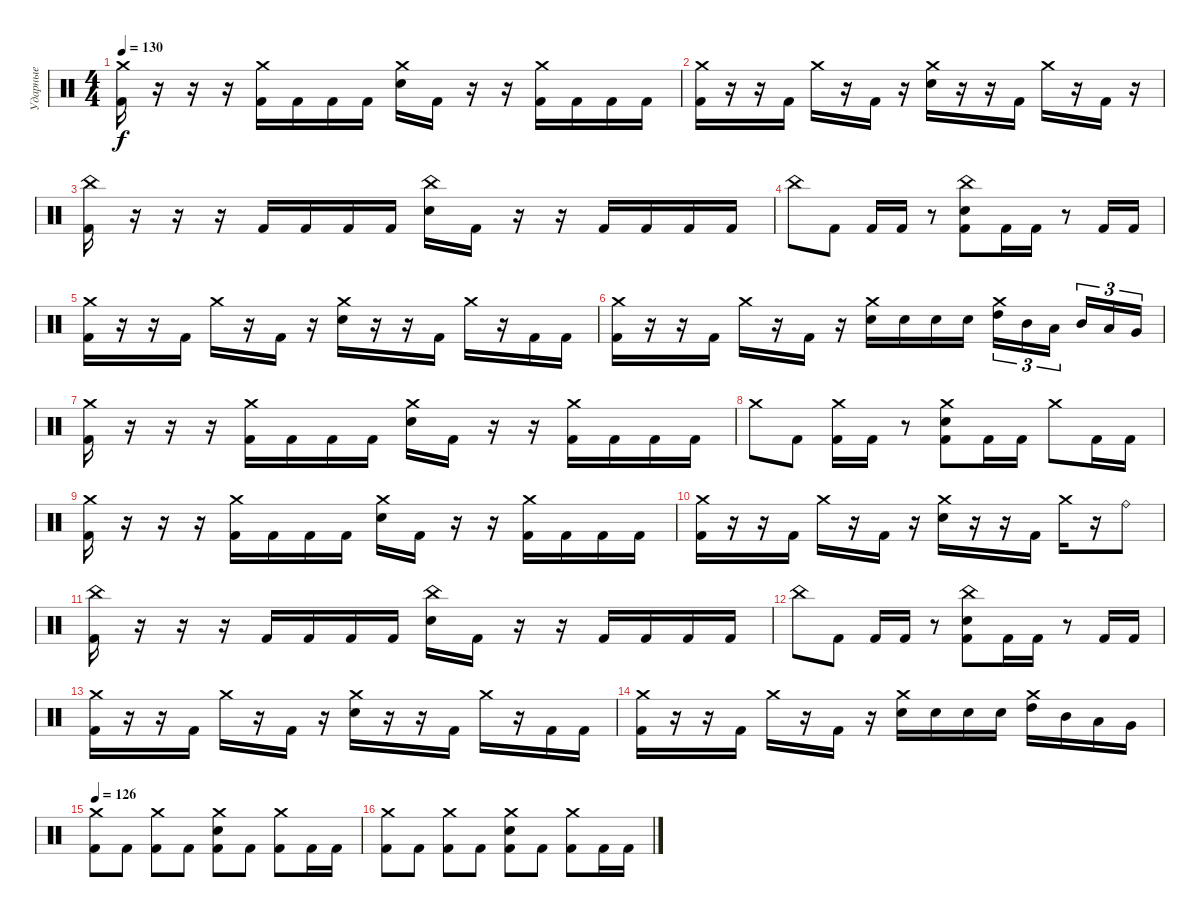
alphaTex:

\track ("Ударные" "Ударные") {instrument percussion}
\staff {score}
\articulation defaults
\ts (4 4)
\tempo 130
\clef neutral
\ks c
("Crash medium (hit)" "Kick (hit) 2").16{dy f} r.16 r.16 r.16 ("Crash medium (hit)" "Kick (hit) 2").16 "Kick (hit) 2".16 "Kick (hit) 2".16 "Kick (hit) 2".16 ("Crash medium (hit)" "Electric Snare (hit)").16 "Kick (hit) 2".16 r.16 r.16 ("Crash medium (hit)" "Kick (hit) 2").16 "Kick (hit) 2".16 "Kick (hit) 2".16 "Kick (hit) 2".16 |
("Crash medium (hit)" "Kick (hit) 2").16 r.16 r.16 "Kick (hit) 2".16 "Crash medium (hit)".16 r.16 "Kick (hit) 2".16 r.16 ("Crash medium (hit)" "Electric Snare (hit)").16 r.16 r.16 "Kick (hit) 2".16 "Crash medium (hit)".16 r.16 "Kick (hit) 2".16 r.16 |
("China (hit)" "Kick (hit) 2").16 r.16 r.16 r.16 "Kick (hit) 2".16 "Kick (hit) 2".16 "Kick (hit) 2".16 "Kick (hit) 2".16 ("China (hit)" "Electric Snare (hit)").16 "Kick (hit) 2".16 r.16 r.16 "Kick (hit) 2".16 "Kick (hit) 2".16 "Kick (hit) 2".16 "Kick (hit) 2".16 |
"China (hit)".8 "Kick (hit) 2".8 "Kick (hit) 2".16 "Kick (hit) 2".16 r.8 ("China (hit)" "Electric Snare (hit)" "Kick (hit) 2").8 "Kick (hit) 2".16 "Kick (hit) 2".16 r.8 "Kick (hit) 2".16 "Kick (hit) 2".16 |
("Crash medium (hit)" "Kick (hit) 2").16 r.16 r.16 "Kick (hit) 2".16 "Crash medium (hit)".16 r.16 "Kick (hit) 2".16 r.16 ("Crash medium (hit)" "Electric Snare (hit)").16 r.16 r.16 "Kick (hit) 2".16 "Crash medium (hit)".16 r.16 "Kick (hit) 2".16 "Kick (hit) 2".16 |
("Crash medium (hit)" "Kick (hit) 2").16 r.16 r.16 "Kick (hit) 2".16 "Crash medium (hit)".16 r.16 "Kick (hit) 2".16 r.16 ("Crash medium (hit)" "Electric Snare (hit)").16 "Electric Snare (hit)".16 "Electric Snare (hit)".16 "Electric Snare (hit)".16 ("Crash medium (hit)" "High Tom (hit)").16{tu (3 2)} "Mid Tom (hit)".16{tu (3 2)} "Low Tom (hit)".16{tu (3 2) beam splitsecondary} "Mid Tom (hit)".16{tu (3 2)} "Low Tom (hit)".16{tu (3 2)} "Very Low Tom (hit)".16{tu (3 2)} |
("Crash medium (hit)" "Kick (hit) 2").16 r.16 r.16 r.16 ("Crash medium (hit)" "Kick (hit) 2").16 "Kick (hit) 2".16 "Kick (hit) 2".16 "Kick (hit) 2".16 ("Crash medium (hit)" "Electric Snare (hit)").16 "Kick (hit) 2".16 r.16 r.16 ("Crash medium (hit)" "Kick (hit) 2").16 "Kick (hit) 2".16 "Kick (hit) 2".16 "Kick (hit) 2".16 |
"Crash medium (hit)".8 "Kick (hit) 2".8 ("Crash medium (hit)" "Kick (hit) 2").16 "Kick (hit) 2".16 r.8 ("Crash medium (hit)" "Electric Snare (hit)" "Kick (hit) 2").8 "Kick (hit) 2".16 "Kick (hit) 2".16 "Crash medium (hit)".8 "Kick (hit) 2".16 "Kick (hit) 2".16 |
("Crash medium (hit)" "Kick (hit) 2").16 r.16 r.16 r.16 ("Crash medium (hit)" "Kick (hit) 2").16 "Kick (hit) 2".16 "Kick (hit) 2".16 "Kick (hit) 2".16 ("Crash medium (hit)" "Electric Snare (hit)").16 "Kick (hit) 2".16 r.16 r.16 ("Crash medium (hit)" "Kick (hit) 2").16 "Kick (hit) 2".16 "Kick (hit) 2".16 "Kick (hit) 2".16 |
("Crash medium (hit)" "Kick (hit) 2").16 r.16 r.16 "Kick (hit) 2".16 "Crash medium (hit)".16 r.16 "Kick (hit) 2".16 r.16 ("Crash medium (hit)" "Electric Snare (hit)").16 r.16 r.16 "Kick (hit) 2".16 "Crash medium (hit)".16 r.16 "Ride (bell)".8 |
("China (hit)" "Kick (hit) 2").16 r.16 r.16 r.16 "Kick (hit) 2".16 "Kick (hit) 2".16 "Kick (hit) 2".16 "Kick (hit) 2".16 ("China (hit)" "Electric Snare (hit)").16 "Kick (hit) 2".16 r.16 r.16 "Kick (hit) 2".16 "Kick (hit) 2".16 "Kick (hit) 2".16 "Kick (hit) 2".16 |
"China (hit)".8 "Kick (hit) 2".8 "Kick (hit) 2".16 "Kick (hit) 2".16 r.8 ("China (hit)" "Electric Snare (hit)" "Kick (hit) 2").8 "Kick (hit) 2".16 "Kick (hit) 2".16 r.8 "Kick (hit) 2".16 "Kick (hit) 2".16 |
("Crash medium (hit)" "Kick (hit) 2").16 r.16 r.16 "Kick (hit) 2".16 "Crash medium (hit)".16 r.16 "Kick (hit) 2".16 r.16 ("Crash medium (hit)" "Electric Snare (hit)").16 r.16 r.16 "Kick (hit) 2".16 "Crash medium (hit)".16 r.16 "Kick (hit) 2".16 "Kick (hit) 2".16 |
("Crash medium (hit)" "Kick (hit) 2").16 r.16 r.16 "Kick (hit) 2".16 "Crash medium (hit)".16 r.16 "Kick (hit) 2".16 r.16 ("Crash medium (hit)" "Electric Snare (hit)").16 "Electric Snare (hit)".16 "Electric Snare (hit)".16 "Electric Snare (hit)".16 ("Crash medium (hit)" "High Tom (hit)").16 "Mid Tom (hit)".16 "Low Tom (hit)".16 "Very Low Tom (hit)".16 |
\tempo 126
("Crash medium (hit)" "Kick (hit) 2").8 "Kick (hit) 2".8 ("Crash medium (hit)" "Kick (hit) 2").8 "Kick (hit) 2".8 ("Crash medium (hit)" "Electric Snare (hit)" "Kick (hit) 2").8 "Kick (hit) 2".8 ("Crash medium (hit)" "Kick (hit) 2").8 "Kick (hit) 2".16 "Kick (hit) 2".16 |
("Crash medium (hit)" "Kick (hit) 2").8 "Kick (hit) 2".8 ("Crash medium (hit)" "Kick (hit) 2").8 "Kick (hit) 2".8 ("Crash medium (hit)" "Electric Snare (hit)" "Kick (hit) 2").8 "Kick (hit) 2".8 ("Crash medium (hit)" "Kick (hit) 2").8 "Kick (hit) 2".16 "Kick (hit) 2".16
